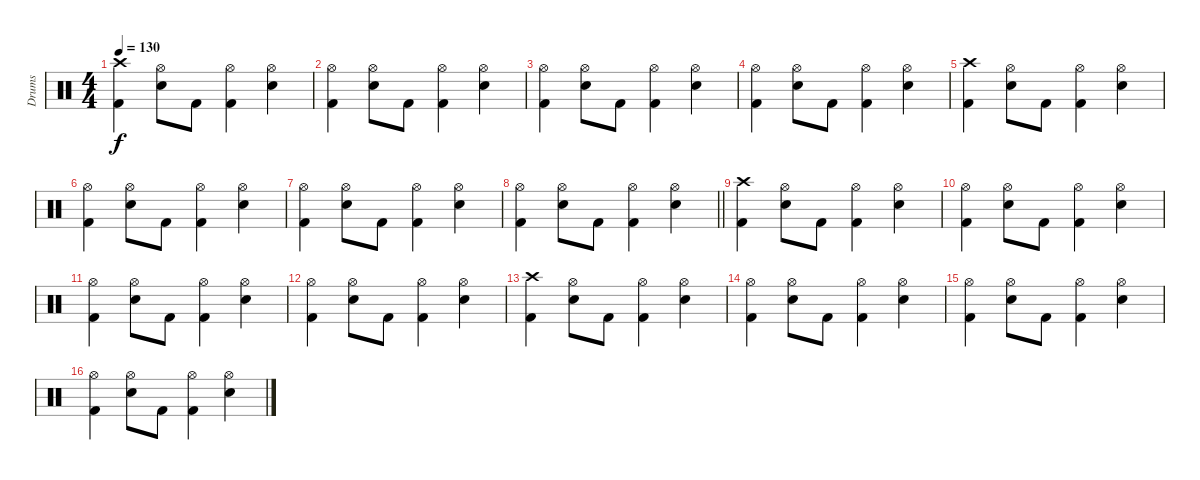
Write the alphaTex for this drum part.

\track ("Drums" "Drums") {instrument percussion}
\staff {score}
\articulation defaults
\ts (4 4)
\tempo 130
\clef neutral
\ks c
("Crash high (hit)" "Kick (hit) 2").4{dy f} ("Hi-Hat (open)" "Electric Snare (hit)").8 "Kick (hit) 2".8 ("Hi-Hat (open)" "Kick (hit) 2").4 ("Hi-Hat (open)" "Electric Snare (hit)").4 |
("Hi-Hat (open)" "Kick (hit) 2").4 ("Hi-Hat (open)" "Electric Snare (hit)").8 "Kick (hit) 2".8 ("Hi-Hat (open)" "Kick (hit) 2").4 ("Hi-Hat (open)" "Electric Snare (hit)").4 |
("Hi-Hat (open)" "Kick (hit) 2").4 ("Hi-Hat (open)" "Electric Snare (hit)").8 "Kick (hit) 2".8 ("Hi-Hat (open)" "Kick (hit) 2").4 ("Hi-Hat (open)" "Electric Snare (hit)").4 |
("Hi-Hat (open)" "Kick (hit) 2").4 ("Hi-Hat (open)" "Electric Snare (hit)").8 "Kick (hit) 2".8 ("Hi-Hat (open)" "Kick (hit) 2").4 ("Hi-Hat (open)" "Electric Snare (hit)").4 |
("Crash high (hit)" "Kick (hit) 2").4 ("Hi-Hat (open)" "Electric Snare (hit)").8 "Kick (hit) 2".8 ("Hi-Hat (open)" "Kick (hit) 2").4 ("Hi-Hat (open)" "Electric Snare (hit)").4 |
("Hi-Hat (open)" "Kick (hit) 2").4 ("Hi-Hat (open)" "Electric Snare (hit)").8 "Kick (hit) 2".8 ("Hi-Hat (open)" "Kick (hit) 2").4 ("Hi-Hat (open)" "Electric Snare (hit)").4 |
("Hi-Hat (open)" "Kick (hit) 2").4 ("Hi-Hat (open)" "Electric Snare (hit)").8 "Kick (hit) 2".8 ("Hi-Hat (open)" "Kick (hit) 2").4 ("Hi-Hat (open)" "Electric Snare (hit)").4 |
\barLineRight lightlight
("Hi-Hat (open)" "Kick (hit) 2").4 ("Hi-Hat (open)" "Electric Snare (hit)").8 "Kick (hit) 2".8 ("Hi-Hat (open)" "Kick (hit) 2").4 ("Hi-Hat (open)" "Electric Snare (hit)").4 |
("Crash high (hit)" "Kick (hit) 2").4 ("Hi-Hat (open)" "Electric Snare (hit)").8 "Kick (hit) 2".8 ("Hi-Hat (open)" "Kick (hit) 2").4 ("Hi-Hat (open)" "Electric Snare (hit)").4 |
("Hi-Hat (open)" "Kick (hit) 2").4 ("Hi-Hat (open)" "Electric Snare (hit)").8 "Kick (hit) 2".8 ("Hi-Hat (open)" "Kick (hit) 2").4 ("Hi-Hat (open)" "Electric Snare (hit)").4 |
("Hi-Hat (open)" "Kick (hit) 2").4 ("Hi-Hat (open)" "Electric Snare (hit)").8 "Kick (hit) 2".8 ("Hi-Hat (open)" "Kick (hit) 2").4 ("Hi-Hat (open)" "Electric Snare (hit)").4 |
("Hi-Hat (open)" "Kick (hit) 2").4 ("Hi-Hat (open)" "Electric Snare (hit)").8 "Kick (hit) 2".8 ("Hi-Hat (open)" "Kick (hit) 2").4 ("Hi-Hat (open)" "Electric Snare (hit)").4 |
("Crash high (hit)" "Kick (hit) 2").4 ("Hi-Hat (open)" "Electric Snare (hit)").8 "Kick (hit) 2".8 ("Hi-Hat (open)" "Kick (hit) 2").4 ("Hi-Hat (open)" "Electric Snare (hit)").4 |
("Hi-Hat (open)" "Kick (hit) 2").4 ("Hi-Hat (open)" "Electric Snare (hit)").8 "Kick (hit) 2".8 ("Hi-Hat (open)" "Kick (hit) 2").4 ("Hi-Hat (open)" "Electric Snare (hit)").4 |
("Hi-Hat (open)" "Kick (hit) 2").4 ("Hi-Hat (open)" "Electric Snare (hit)").8 "Kick (hit) 2".8 ("Hi-Hat (open)" "Kick (hit) 2").4 ("Hi-Hat (open)" "Electric Snare (hit)").4 |
("Hi-Hat (open)" "Kick (hit) 2").4 ("Hi-Hat (open)" "Electric Snare (hit)").8 "Kick (hit) 2".8 ("Hi-Hat (open)" "Kick (hit) 2").4 ("Hi-Hat (open)" "Electric Snare (hit)").4
